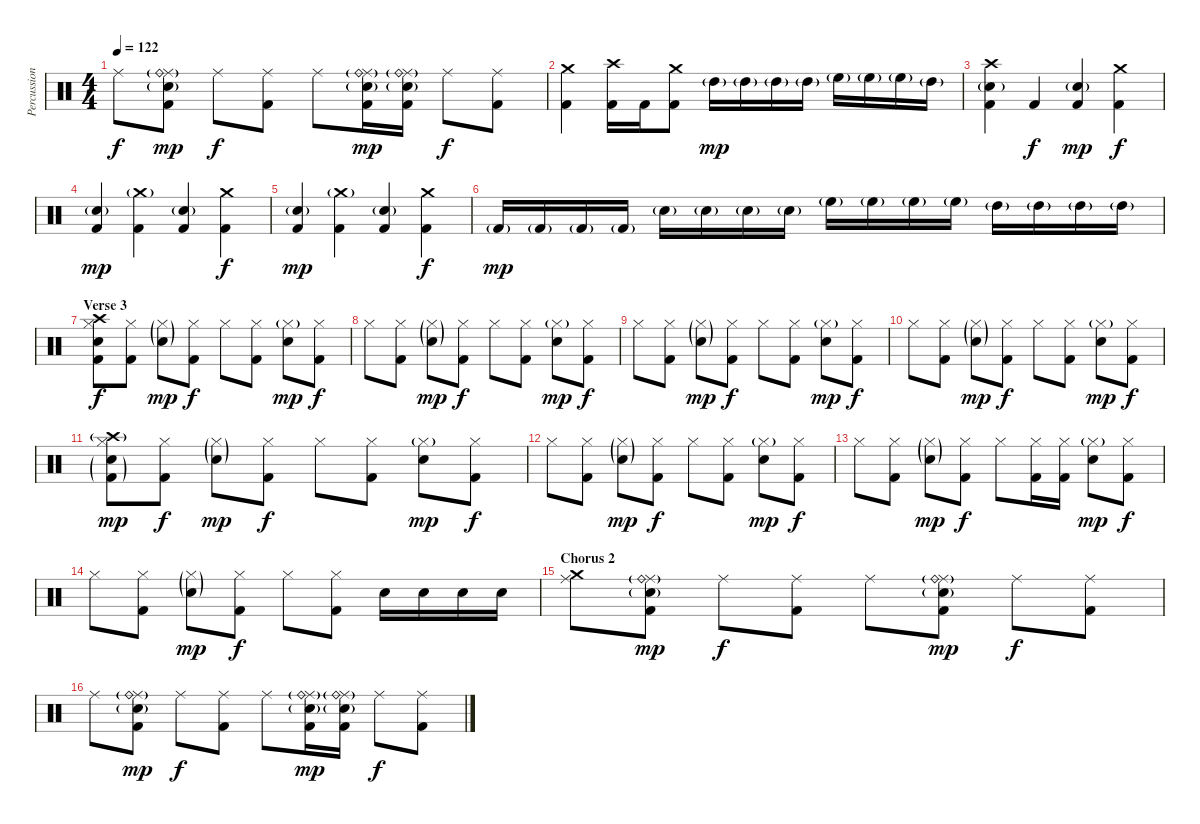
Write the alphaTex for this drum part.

\track ("Percussion" "Percussion") {instrument percussion}
\staff {score}
\articulation defaults
\ts (4 4)
\tempo 122
\clef neutral
\ks c "Ride (middle)".8{dy f}
("Snare (hit) 2"{g} "Ride (middle)"{g} "Ride (bell)" "Kick (hit) 2").8{dy mp} "Ride (middle)".8{dy f} ("Ride (middle)" "Kick (hit) 2").8 "Ride (middle)".8 ("Snare (hit) 2"{g} "Ride (middle)"{g} "Ride (bell)" "Kick (hit) 2").16{dy mp} ("Snare (hit) 2"{g} "Ride (middle)"{g} "Ride (bell)" "Kick (hit) 2").16 "Ride (middle)".8{dy f} ("Ride (middle)" "Kick (hit) 2").8 |
("Crash medium (hit)" "Kick (hit) 2").4 ("Crash high (hit)" "Kick (hit) 2").16 "Kick (hit) 2".16 ("Crash medium (hit)" "Kick (hit) 2").8 "High Tom (hit)"{g}.16{dy mp} "High Tom (hit)"{g}.16 "High Tom (hit)"{g}.16 "High Tom (hit)"{g}.16 "High Floor Tom (hit)"{g}.16 "High Floor Tom (hit)"{g}.16 "High Floor Tom (hit)"{g}.16 "High Tom (hit)"{g}.16 |
("Crash high (hit)" "Snare (hit) 2"{g} "Kick (hit) 2").4 "Kick (hit) 2".4{dy f} ("Snare (hit) 2"{g} "Kick (hit) 2").4{dy mp} ("Crash medium (hit)" "Kick (hit) 2").4{dy f} |
("Snare (hit) 2"{g} "Kick (hit) 2").4{dy mp} ("Crash medium (hit)"{g} "Kick (hit) 2").4 ("Snare (hit) 2"{g} "Kick (hit) 2").4 ("Crash medium (hit)" "Kick (hit) 2").4{dy f} |
("Snare (hit) 2"{g} "Kick (hit) 2").4{dy mp} ("Crash medium (hit)"{g} "Kick (hit) 2").4 ("Snare (hit) 2"{g} "Kick (hit) 2").4 ("Crash medium (hit)" "Kick (hit) 2").4{dy f} |
"Kick (hit) 2"{g}.16{dy mp} "Kick (hit) 2"{g}.16 "Kick (hit) 2"{g}.16 "Kick (hit) 2"{g}.16 "Snare (hit) 2"{g}.16 "Snare (hit) 2"{g}.16 "Snare (hit) 2"{g}.16 "Snare (hit) 2"{g}.16 "High Floor Tom (hit)"{g}.16 "High Floor Tom (hit)"{g}.16 "High Floor Tom (hit)"{g}.16 "High Floor Tom (hit)"{g}.16 "High Tom (hit)"{g}.16 "High Tom (hit)"{g}.16 "High Tom (hit)"{g}.16 "High Tom (hit)"{g}.16 |
\section ("" "Verse 3")
("Crash high (hit)" "Hi-Hat (closed)" "Snare (hit) 2" "Kick (hit) 2").8{dy f} ("Hi-Hat (closed)" "Kick (hit) 2").8 ("Hi-Hat (closed)"{g} "Snare (hit) 2"{g}).8{dy mp} ("Hi-Hat (closed)" "Kick (hit) 2").8{dy f} "Hi-Hat (closed)".8 ("Hi-Hat (closed)" "Kick (hit) 2").8 ("Hi-Hat (closed)"{g} "Snare (hit) 2").8{dy mp} ("Hi-Hat (closed)" "Kick (hit) 2").8{dy f} |
"Hi-Hat (closed)".8 ("Hi-Hat (closed)" "Kick (hit) 2").8 ("Hi-Hat (closed)"{g} "Snare (hit) 2"{g}).8{dy mp} ("Hi-Hat (closed)" "Kick (hit) 2").8{dy f} "Hi-Hat (closed)".8 ("Hi-Hat (closed)" "Kick (hit) 2").8 ("Hi-Hat (closed)"{g} "Snare (hit) 2").8{dy mp} ("Hi-Hat (closed)" "Kick (hit) 2").8{dy f} |
"Hi-Hat (closed)".8 ("Hi-Hat (closed)" "Kick (hit) 2").8 ("Hi-Hat (closed)"{g} "Snare (hit) 2"{g}).8{dy mp} ("Hi-Hat (closed)" "Kick (hit) 2").8{dy f} "Hi-Hat (closed)".8 ("Hi-Hat (closed)" "Kick (hit) 2").8 ("Hi-Hat (closed)"{g} "Snare (hit) 2").8{dy mp} ("Hi-Hat (closed)" "Kick (hit) 2").8{dy f} |
"Hi-Hat (closed)".8 ("Hi-Hat (closed)" "Kick (hit) 2").8 ("Hi-Hat (closed)"{g} "Snare (hit) 2"{g}).8{dy mp} ("Hi-Hat (closed)" "Kick (hit) 2").8{dy f} "Hi-Hat (closed)".8 ("Hi-Hat (closed)" "Kick (hit) 2").8 ("Hi-Hat (closed)"{g} "Snare (hit) 2").8{dy mp} ("Hi-Hat (closed)" "Kick (hit) 2").8{dy f} |
("Crash high (hit)"{g} "Hi-Hat (closed)" "Snare (hit) 2"{g} "Kick (hit) 2"{g}).8{dy mp} ("Hi-Hat (closed)" "Kick (hit) 2").8{dy f} ("Hi-Hat (closed)"{g} "Snare (hit) 2"{g}).8{dy mp} ("Hi-Hat (closed)" "Kick (hit) 2").8{dy f} "Hi-Hat (closed)".8 ("Hi-Hat (closed)" "Kick (hit) 2").8 ("Hi-Hat (closed)"{g} "Snare (hit) 2").8{dy mp} ("Hi-Hat (closed)" "Kick (hit) 2").8{dy f} |
"Hi-Hat (closed)".8 ("Hi-Hat (closed)" "Kick (hit) 2").8 ("Hi-Hat (closed)"{g} "Snare (hit) 2"{g}).8{dy mp} ("Hi-Hat (closed)" "Kick (hit) 2").8{dy f} "Hi-Hat (closed)".8 ("Hi-Hat (closed)" "Kick (hit) 2").8 ("Hi-Hat (closed)"{g} "Snare (hit) 2").8{dy mp} ("Hi-Hat (closed)" "Kick (hit) 2").8{dy f} |
"Hi-Hat (closed)".8 ("Hi-Hat (closed)" "Kick (hit) 2").8 ("Hi-Hat (closed)"{g} "Snare (hit) 2"{g}).8{dy mp} ("Hi-Hat (closed)" "Kick (hit) 2").8{dy f} "Hi-Hat (closed)".8 ("Hi-Hat (closed)" "Kick (hit) 2").16 ("Hi-Hat (closed)" "Kick (hit) 2").16 ("Hi-Hat (closed)"{g} "Snare (hit) 2").8{dy mp} ("Hi-Hat (closed)" "Kick (hit) 2").8{dy f} |
"Hi-Hat (closed)".8 ("Hi-Hat (closed)" "Kick (hit) 2").8 ("Hi-Hat (closed)"{g} "Snare (hit) 2"{g}).8{dy mp} ("Hi-Hat (closed)" "Kick (hit) 2").8{dy f} "Hi-Hat (closed)".8 ("Hi-Hat (closed)" "Kick (hit) 2").8 "Snare (hit) 2".16 "Snare (hit) 2".16 "Snare (hit) 2".16 "Snare (hit) 2".16 |
\section ("" "Chorus 2")
("Crash medium (hit)" "Ride (middle)").8 ("Snare (hit) 2"{g} "Ride (middle)"{g} "Ride (bell)" "Kick (hit) 2").8{dy mp} "Ride (middle)".8{dy f} ("Ride (middle)" "Kick (hit) 2").8 "Ride (middle)".8 ("Snare (hit) 2"{g} "Ride (middle)"{g} "Ride (bell)" "Kick (hit) 2").8{dy mp} "Ride (middle)".8{dy f} ("Ride (middle)" "Kick (hit) 2").8 |
"Ride (middle)".8 ("Snare (hit) 2"{g} "Ride (middle)"{g} "Ride (bell)" "Kick (hit) 2").8{dy mp} "Ride (middle)".8{dy f} ("Ride (middle)" "Kick (hit) 2").8 "Ride (middle)".8 ("Snare (hit) 2"{g} "Ride (middle)"{g} "Ride (bell)" "Kick (hit) 2").16{dy mp} ("Snare (hit) 2"{g} "Ride (middle)"{g} "Ride (bell)" "Kick (hit) 2").16 "Ride (middle)".8{dy f} ("Ride (middle)" "Kick (hit) 2").8
